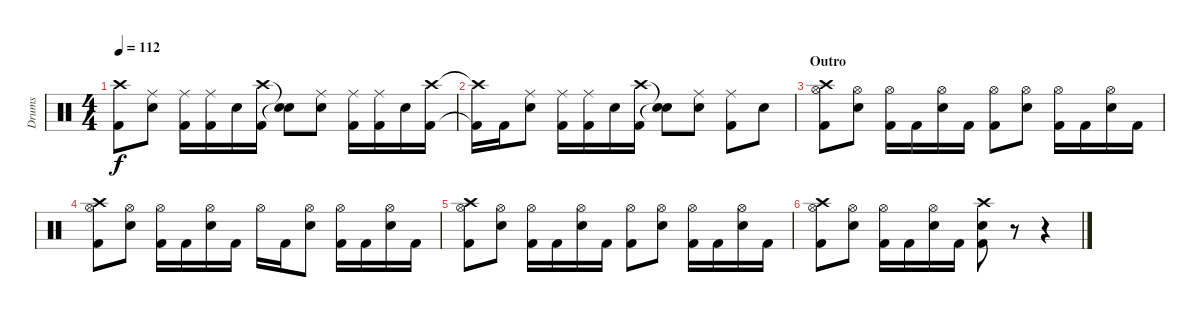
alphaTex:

\track ("Drums" "Drums") {instrument percussion}
\staff {score}
\articulation defaults
\ts (4 4)
\tempo 112
\clef neutral
\ks c
("Crash high (hit)" "Kick (hit) 2").8{dy f} ("Ride (middle)" "Electric Snare (hit)").8 ("Ride (middle)" "Kick (hit) 2").16 ("Ride (middle)" "Kick (hit) 2").16 "Electric Snare (hit)".16 ("Crash high (hit)" "Kick (hit) 2").16 ("Snare (hit)"{t} "Snare (hit)"{t}).8 ("Ride (middle)" "Electric Snare (hit)").8 ("Ride (middle)" "Kick (hit) 2").16 ("Ride (middle)" "Kick (hit) 2").16 "Electric Snare (hit)".16 ("Crash high (hit)" "Kick (hit) 2").16 |
("Crash high (hit)"{t} "Kick (hit) 2"{t}).16 "Kick (hit) 2".16 ("Ride (middle)" "Electric Snare (hit)").8 ("Ride (middle)" "Kick (hit) 2").16 ("Ride (middle)" "Kick (hit) 2").16 "Electric Snare (hit)".16 ("Crash high (hit)" "Kick (hit) 2").16 ("Snare (hit)"{t} "Snare (hit)"{t}).8 ("Ride (middle)" "Electric Snare (hit)").8 ("Ride (middle)" "Kick (hit) 2").8 "Electric Snare (hit)".8 |
\section ("" "Outro")
("Crash high (hit)" "Hi-Hat (open)" "Kick (hit) 2").8 ("Hi-Hat (open)" "Electric Snare (hit)").8 ("Hi-Hat (open)" "Kick (hit) 2").16 "Kick (hit) 2".16 ("Hi-Hat (open)" "Electric Snare (hit)").16 "Kick (hit) 2".16 ("Hi-Hat (open)" "Kick (hit) 2").8 ("Hi-Hat (open)" "Electric Snare (hit)").8 ("Hi-Hat (open)" "Kick (hit) 2").16 "Kick (hit) 2".16 ("Hi-Hat (open)" "Electric Snare (hit)").16 "Kick (hit) 2".16 |
("Crash high (hit)" "Hi-Hat (open)" "Kick (hit) 2").8 ("Hi-Hat (open)" "Electric Snare (hit)").8 ("Hi-Hat (open)" "Kick (hit) 2").16 "Kick (hit) 2".16 ("Hi-Hat (open)" "Electric Snare (hit)").16 "Kick (hit) 2".16 "Hi-Hat (open)".16 "Kick (hit) 2".16 ("Hi-Hat (open)" "Electric Snare (hit)").8 ("Hi-Hat (open)" "Kick (hit) 2").16 "Kick (hit) 2".16 ("Hi-Hat (open)" "Electric Snare (hit)").16 "Kick (hit) 2".16 |
("Crash high (hit)" "Hi-Hat (open)" "Kick (hit) 2").8 ("Hi-Hat (open)" "Electric Snare (hit)").8 ("Hi-Hat (open)" "Kick (hit) 2").16 "Kick (hit) 2".16 ("Hi-Hat (open)" "Electric Snare (hit)").16 "Kick (hit) 2".16 ("Hi-Hat (open)" "Kick (hit) 2").8 ("Hi-Hat (open)" "Electric Snare (hit)").8 ("Hi-Hat (open)" "Kick (hit) 2").16 "Kick (hit) 2".16 ("Hi-Hat (open)" "Electric Snare (hit)").16 "Kick (hit) 2".16 |
("Crash high (hit)" "Hi-Hat (open)" "Kick (hit) 2").8 ("Hi-Hat (open)" "Electric Snare (hit)").8 ("Hi-Hat (open)" "Kick (hit) 2").16 "Kick (hit) 2".16 ("Hi-Hat (open)" "Electric Snare (hit)").16 "Kick (hit) 2".16 ("Crash high (hit)" "Electric Snare (hit)" "Kick (hit) 2").8 r.8 r.4
